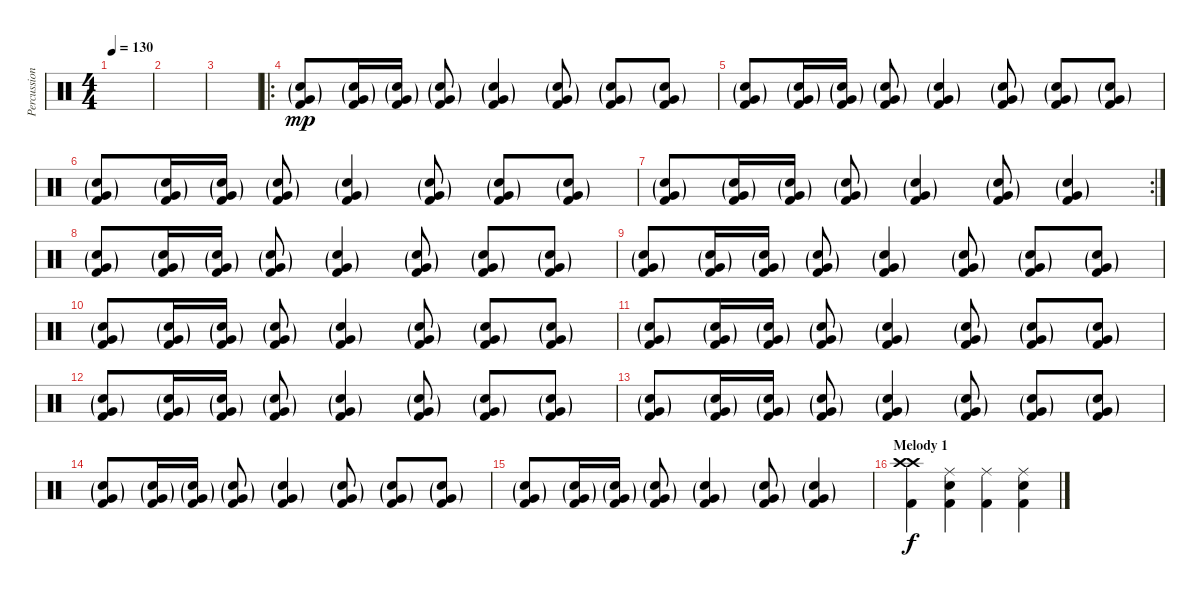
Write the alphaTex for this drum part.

\track ("Percussion - Rhythm" "Percussion") {instrument percussion}
\staff {score}
\articulation defaults
\ts (4 4)
\tempo 130
\clef neutral
\ks c
|
|
|
\ro
("Snare (hit) 2"{g} "Very Low Tom (hit)"{g} "Kick (hit) 2").8{dy mp} ("Snare (hit) 2"{g} "Very Low Tom (hit)"{g} "Kick (hit) 2").16 ("Snare (hit) 2"{g} "Very Low Tom (hit)"{g} "Kick (hit) 2").16 ("Snare (hit) 2"{g} "Very Low Tom (hit)"{g} "Kick (hit) 2").8 ("Snare (hit) 2"{g} "Very Low Tom (hit)"{g} "Kick (hit) 2").4 ("Snare (hit) 2"{g} "Very Low Tom (hit)"{g} "Kick (hit) 2").8 ("Snare (hit) 2"{g} "Very Low Tom (hit)"{g} "Kick (hit) 2").8 ("Snare (hit) 2"{g} "Very Low Tom (hit)"{g} "Kick (hit) 2").8 |
("Snare (hit) 2"{g} "Very Low Tom (hit)"{g} "Kick (hit) 2").8 ("Snare (hit) 2"{g} "Very Low Tom (hit)"{g} "Kick (hit) 2").16 ("Snare (hit) 2"{g} "Very Low Tom (hit)"{g} "Kick (hit) 2").16 ("Snare (hit) 2"{g} "Very Low Tom (hit)"{g} "Kick (hit) 2").8 ("Snare (hit) 2"{g} "Very Low Tom (hit)"{g} "Kick (hit) 2").4 ("Snare (hit) 2"{g} "Very Low Tom (hit)"{g} "Kick (hit) 2").8 ("Snare (hit) 2"{g} "Very Low Tom (hit)"{g} "Kick (hit) 2").8 ("Snare (hit) 2"{g} "Very Low Tom (hit)"{g} "Kick (hit) 2").8 |
("Snare (hit) 2"{g} "Very Low Tom (hit)"{g} "Kick (hit) 2").8 ("Snare (hit) 2"{g} "Very Low Tom (hit)"{g} "Kick (hit) 2").16 ("Snare (hit) 2"{g} "Very Low Tom (hit)"{g} "Kick (hit) 2").16 ("Snare (hit) 2"{g} "Very Low Tom (hit)"{g} "Kick (hit) 2").8 ("Snare (hit) 2"{g} "Very Low Tom (hit)"{g} "Kick (hit) 2").4 ("Snare (hit) 2"{g} "Very Low Tom (hit)"{g} "Kick (hit) 2").8 ("Snare (hit) 2"{g} "Very Low Tom (hit)"{g} "Kick (hit) 2").8 ("Snare (hit) 2"{g} "Very Low Tom (hit)"{g} "Kick (hit) 2").8 |
\rc 2
("Snare (hit) 2"{g} "Very Low Tom (hit)"{g} "Kick (hit) 2").8 ("Snare (hit) 2"{g} "Very Low Tom (hit)"{g} "Kick (hit) 2").16 ("Snare (hit) 2"{g} "Very Low Tom (hit)"{g} "Kick (hit) 2").16 ("Snare (hit) 2"{g} "Very Low Tom (hit)"{g} "Kick (hit) 2").8 ("Snare (hit) 2"{g} "Very Low Tom (hit)"{g} "Kick (hit) 2").4 ("Snare (hit) 2"{g} "Very Low Tom (hit)"{g} "Kick (hit) 2").8 ("Snare (hit) 2"{g} "Very Low Tom (hit)"{g} "Kick (hit) 2").4 |
("Snare (hit) 2"{g} "Very Low Tom (hit)"{g} "Kick (hit) 2").8{volume 4} ("Snare (hit) 2"{g} "Very Low Tom (hit)"{g} "Kick (hit) 2").16 ("Snare (hit) 2"{g} "Very Low Tom (hit)"{g} "Kick (hit) 2").16 ("Snare (hit) 2"{g} "Very Low Tom (hit)"{g} "Kick (hit) 2").8 ("Snare (hit) 2"{g} "Very Low Tom (hit)"{g} "Kick (hit) 2").4 ("Snare (hit) 2"{g} "Very Low Tom (hit)"{g} "Kick (hit) 2").8 ("Snare (hit) 2"{g} "Very Low Tom (hit)"{g} "Kick (hit) 2").8 ("Snare (hit) 2"{g} "Very Low Tom (hit)"{g} "Kick (hit) 2").8 |
("Snare (hit) 2"{g} "Very Low Tom (hit)"{g} "Kick (hit) 2").8 ("Snare (hit) 2"{g} "Very Low Tom (hit)"{g} "Kick (hit) 2").16 ("Snare (hit) 2"{g} "Very Low Tom (hit)"{g} "Kick (hit) 2").16 ("Snare (hit) 2"{g} "Very Low Tom (hit)"{g} "Kick (hit) 2").8 ("Snare (hit) 2"{g} "Very Low Tom (hit)"{g} "Kick (hit) 2").4 ("Snare (hit) 2"{g} "Very Low Tom (hit)"{g} "Kick (hit) 2").8 ("Snare (hit) 2"{g} "Very Low Tom (hit)"{g} "Kick (hit) 2").8 ("Snare (hit) 2"{g} "Very Low Tom (hit)"{g} "Kick (hit) 2").8 |
("Snare (hit) 2"{g} "Very Low Tom (hit)"{g} "Kick (hit) 2").8 ("Snare (hit) 2"{g} "Very Low Tom (hit)"{g} "Kick (hit) 2").16 ("Snare (hit) 2"{g} "Very Low Tom (hit)"{g} "Kick (hit) 2").16 ("Snare (hit) 2"{g} "Very Low Tom (hit)"{g} "Kick (hit) 2").8 ("Snare (hit) 2"{g} "Very Low Tom (hit)"{g} "Kick (hit) 2").4 ("Snare (hit) 2"{g} "Very Low Tom (hit)"{g} "Kick (hit) 2").8 ("Snare (hit) 2"{g} "Very Low Tom (hit)"{g} "Kick (hit) 2").8 ("Snare (hit) 2"{g} "Very Low Tom (hit)"{g} "Kick (hit) 2").8 |
("Snare (hit) 2"{g} "Very Low Tom (hit)"{g} "Kick (hit) 2").8 ("Snare (hit) 2"{g} "Very Low Tom (hit)"{g} "Kick (hit) 2").16 ("Snare (hit) 2"{g} "Very Low Tom (hit)"{g} "Kick (hit) 2").16 ("Snare (hit) 2"{g} "Very Low Tom (hit)"{g} "Kick (hit) 2").8 ("Snare (hit) 2"{g} "Very Low Tom (hit)"{g} "Kick (hit) 2").4 ("Snare (hit) 2"{g} "Very Low Tom (hit)"{g} "Kick (hit) 2").8 ("Snare (hit) 2"{g} "Very Low Tom (hit)"{g} "Kick (hit) 2").8{volume 13} ("Snare (hit) 2"{g} "Very Low Tom (hit)"{g} "Kick (hit) 2").8 |
("Snare (hit) 2"{g} "Very Low Tom (hit)"{g} "Kick (hit) 2").8 ("Snare (hit) 2"{g} "Very Low Tom (hit)"{g} "Kick (hit) 2").16 ("Snare (hit) 2"{g} "Very Low Tom (hit)"{g} "Kick (hit) 2").16 ("Snare (hit) 2"{g} "Very Low Tom (hit)"{g} "Kick (hit) 2").8 ("Snare (hit) 2"{g} "Very Low Tom (hit)"{g} "Kick (hit) 2").4 ("Snare (hit) 2"{g} "Very Low Tom (hit)"{g} "Kick (hit) 2").8 ("Snare (hit) 2"{g} "Very Low Tom (hit)"{g} "Kick (hit) 2").8 ("Snare (hit) 2"{g} "Very Low Tom (hit)"{g} "Kick (hit) 2").8 |
("Snare (hit) 2"{g} "Very Low Tom (hit)"{g} "Kick (hit) 2").8 ("Snare (hit) 2"{g} "Very Low Tom (hit)"{g} "Kick (hit) 2").16 ("Snare (hit) 2"{g} "Very Low Tom (hit)"{g} "Kick (hit) 2").16 ("Snare (hit) 2"{g} "Very Low Tom (hit)"{g} "Kick (hit) 2").8 ("Snare (hit) 2"{g} "Very Low Tom (hit)"{g} "Kick (hit) 2").4 ("Snare (hit) 2"{g} "Very Low Tom (hit)"{g} "Kick (hit) 2").8 ("Snare (hit) 2"{g} "Very Low Tom (hit)"{g} "Kick (hit) 2").8 ("Snare (hit) 2"{g} "Very Low Tom (hit)"{g} "Kick (hit) 2").8 |
("Snare (hit) 2"{g} "Very Low Tom (hit)"{g} "Kick (hit) 2").8 ("Snare (hit) 2"{g} "Very Low Tom (hit)"{g} "Kick (hit) 2").16 ("Snare (hit) 2"{g} "Very Low Tom (hit)"{g} "Kick (hit) 2").16 ("Snare (hit) 2"{g} "Very Low Tom (hit)"{g} "Kick (hit) 2").8 ("Snare (hit) 2"{g} "Very Low Tom (hit)"{g} "Kick (hit) 2").4 ("Snare (hit) 2"{g} "Very Low Tom (hit)"{g} "Kick (hit) 2").8 ("Snare (hit) 2"{g} "Very Low Tom (hit)"{g} "Kick (hit) 2").8 ("Snare (hit) 2"{g} "Very Low Tom (hit)"{g} "Kick (hit) 2").8 |
("Snare (hit) 2"{g} "Very Low Tom (hit)"{g} "Kick (hit) 2").8 ("Snare (hit) 2"{g} "Very Low Tom (hit)"{g} "Kick (hit) 2").16 ("Snare (hit) 2"{g} "Very Low Tom (hit)"{g} "Kick (hit) 2").16 ("Snare (hit) 2"{g} "Very Low Tom (hit)"{g} "Kick (hit) 2").8 ("Snare (hit) 2"{g} "Very Low Tom (hit)"{g} "Kick (hit) 2").4 ("Snare (hit) 2"{g} "Very Low Tom (hit)"{g} "Kick (hit) 2").8 ("Snare (hit) 2"{g} "Very Low Tom (hit)"{g} "Kick (hit) 2").4 |
\section ("" "Melody 1")
("Crash high (hit)" "Crash high (hit)" "Kick (hit) 2").4{dy f volume 13} ("Ride (middle)" "Snare (hit) 2" "Kick (hit) 2").4 ("Ride (middle)" "Kick (hit) 2").4 ("Ride (middle)" "Snare (hit) 2" "Kick (hit) 2").4
